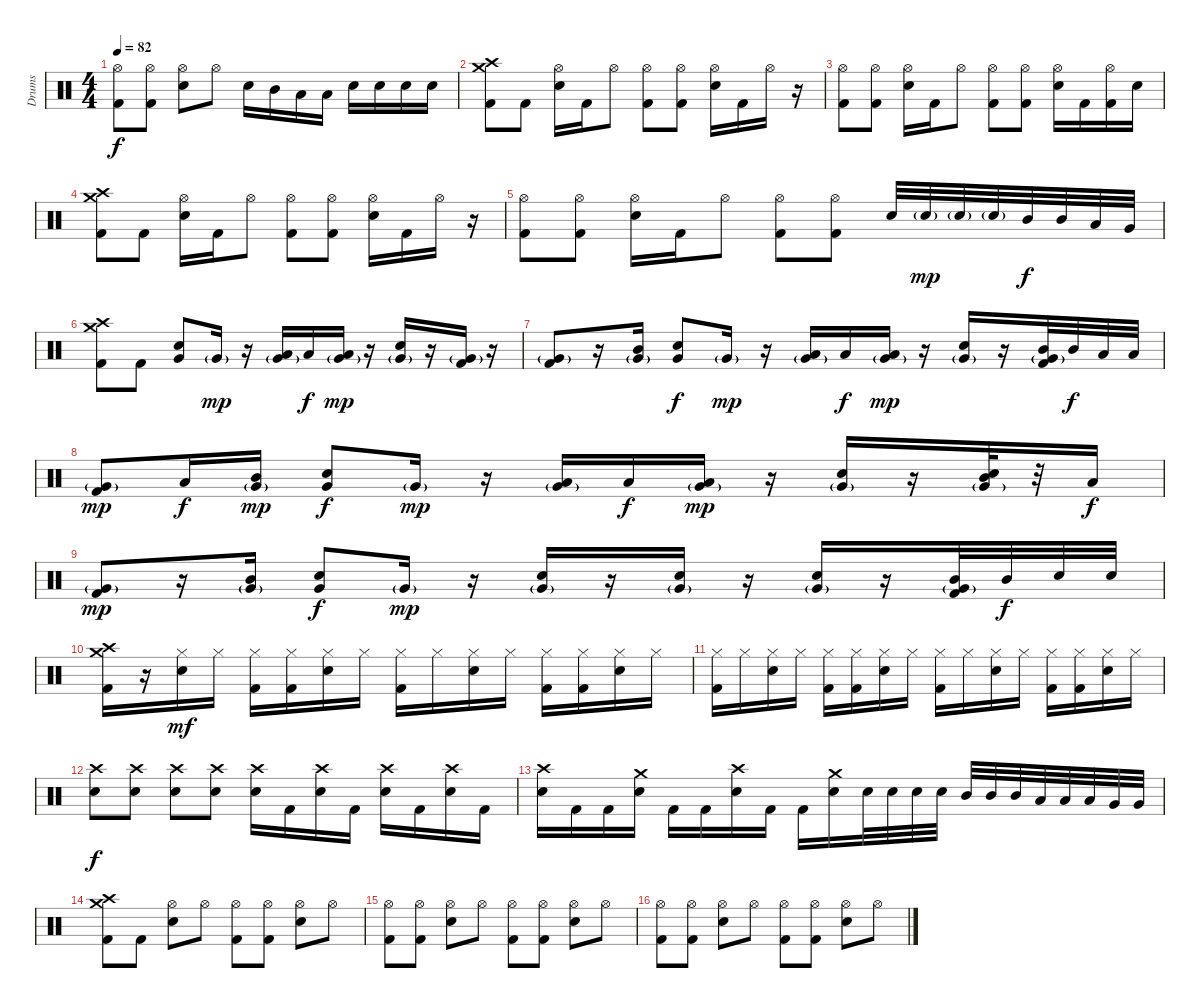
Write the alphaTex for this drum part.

\track ("Drums" "Drums") {instrument percussion}
\staff {score}
\articulation defaults
\ts (4 4)
\tempo 82
\clef neutral
\ks c
("Hi-Hat (open)" "Kick (hit) 2").8{dy f} ("Hi-Hat (open)" "Kick (hit) 2").8 ("Hi-Hat (open)" "Electric Snare (hit)").8 "Hi-Hat (open)".8 "Electric Snare (hit)".16 "Mid Tom (hit)".16 "Low Tom (hit)".16 "Low Tom (hit)".16 "Electric Snare (hit)".16 "Electric Snare (hit)".16 "Electric Snare (hit)".16 "Electric Snare (hit)".16 |
("Crash high (hit)" "Crash medium (hit)" "Kick (hit) 2").8 "Kick (hit) 2".8 ("Hi-Hat (open)" "Electric Snare (hit)").16 "Kick (hit) 2".16 "Hi-Hat (open)".8 ("Hi-Hat (open)" "Kick (hit) 2").8 ("Hi-Hat (open)" "Kick (hit) 2").8 ("Hi-Hat (open)" "Electric Snare (hit)").16 "Kick (hit) 2".16 "Hi-Hat (open)".16 r.16 |
("Hi-Hat (open)" "Kick (hit) 2").8 ("Hi-Hat (open)" "Kick (hit) 2").8 ("Hi-Hat (open)" "Electric Snare (hit)").16 "Kick (hit) 2".16 "Hi-Hat (open)".8 ("Hi-Hat (open)" "Kick (hit) 2").8 ("Hi-Hat (open)" "Kick (hit) 2").8 ("Hi-Hat (open)" "Electric Snare (hit)").16 "Kick (hit) 2".16 ("Hi-Hat (open)" "Kick (hit) 2").16 "Electric Snare (hit)".16 |
("Crash high (hit)" "Crash medium (hit)" "Kick (hit) 2").8 "Kick (hit) 2".8 ("Hi-Hat (open)" "Electric Snare (hit)").16 "Kick (hit) 2".16 "Hi-Hat (open)".8 ("Hi-Hat (open)" "Kick (hit) 2").8 ("Hi-Hat (open)" "Kick (hit) 2").8 ("Hi-Hat (open)" "Electric Snare (hit)").16 "Kick (hit) 2".16 "Hi-Hat (open)".16 r.16 |
("Hi-Hat (open)" "Kick (hit) 2").8 ("Hi-Hat (open)" "Kick (hit) 2").8 ("Hi-Hat (open)" "Electric Snare (hit)").16 "Kick (hit) 2".16 "Hi-Hat (open)".8 ("Hi-Hat (open)" "Kick (hit) 2").8 ("Hi-Hat (open)" "Kick (hit) 2").8 "Electric Snare (hit)".32 "Electric Snare (hit)"{g}.32{dy mp} "Electric Snare (hit)"{g}.32 "Electric Snare (hit)"{g}.32 "Mid Tom (hit)".32{dy f} "Mid Tom (hit)".32 "Low Tom (hit)".32 "Very Low Tom (hit)".32 |
("Crash high (hit)" "Crash medium (hit)" "Kick (hit) 2").8 "Kick (hit) 2".8 ("Very Low Tom (hit)" "Electric Snare (hit)").8 "Very Low Tom (hit)"{g}.16{dy mp} r.16 ("Low Tom (hit)" "Very Low Tom (hit)"{g}).16 "Low Tom (hit)".16{dy f} ("Low Tom (hit)" "Very Low Tom (hit)"{g}).16{dy mp} r.16 ("Very Low Tom (hit)"{g} "Electric Snare (hit)").16 r.16 ("Very Low Tom (hit)"{g} "Kick (hit) 2").16 r.16 |
("Very Low Tom (hit)"{g} "Kick (hit) 2").8 r.16 ("Mid Tom (hit)" "Very Low Tom (hit)"{g}).16 ("Very Low Tom (hit)" "Electric Snare (hit)").8{dy f} "Very Low Tom (hit)"{g}.16{dy mp} r.16 ("Low Tom (hit)" "Very Low Tom (hit)"{g}).16 "Low Tom (hit)".16{dy f} ("Low Tom (hit)" "Very Low Tom (hit)"{g}).16{dy mp} r.16 ("Very Low Tom (hit)"{g} "Electric Snare (hit)").16 r.16 ("Mid Tom (hit)" "Very Low Tom (hit)"{g} "Kick (hit) 2").32 "Mid Tom (hit)".32{dy f} "Low Tom (hit)".32 "Low Tom (hit)".32 |
("Very Low Tom (hit)"{g} "Kick (hit) 2").8{dy mp} "Low Tom (hit)".16{dy f} ("Mid Tom (hit)" "Very Low Tom (hit)"{g}).16{dy mp} ("Very Low Tom (hit)" "Electric Snare (hit)").8{dy f} "Very Low Tom (hit)"{g}.16{dy mp} r.16 ("Low Tom (hit)" "Very Low Tom (hit)"{g}).16 "Low Tom (hit)".16{dy f} ("Low Tom (hit)" "Very Low Tom (hit)"{g}).16{dy mp} r.16 ("Very Low Tom (hit)"{g} "Electric Snare (hit)").16 r.16 ("Mid Tom (hit)" "Very Low Tom (hit)"{g} "Electric Snare (hit)").32 r.32 "Low Tom (hit)".16{dy f} |
("Very Low Tom (hit)"{g} "Kick (hit) 2").8{dy mp} r.16 ("Mid Tom (hit)" "Very Low Tom (hit)"{g}).16 ("Very Low Tom (hit)" "Electric Snare (hit)").8{dy f} "Very Low Tom (hit)"{g}.16{dy mp} r.16 ("Very Low Tom (hit)"{g} "Electric Snare (hit)").16 r.16 ("Very Low Tom (hit)"{g} "Electric Snare (hit)").16 r.16 ("Very Low Tom (hit)"{g} "Electric Snare (hit)").16 r.16 ("Mid Tom (hit)" "Very Low Tom (hit)"{g} "Kick (hit) 2").32 "Mid Tom (hit)".32{dy f} "Electric Snare (hit)".32 "Electric Snare (hit)".32 |
("Crash high (hit)" "Crash medium (hit)" "Kick (hit) 2").16 r.16 ("Hi-Hat (closed)" "Electric Snare (hit)").16{dy mf} "Hi-Hat (closed)".16 ("Hi-Hat (closed)" "Kick (hit) 2").16 ("Hi-Hat (closed)" "Kick (hit) 2").16 ("Hi-Hat (closed)" "Electric Snare (hit)").16 "Hi-Hat (closed)".16 ("Hi-Hat (closed)" "Kick (hit) 2").16 "Hi-Hat (closed)".16 ("Hi-Hat (closed)" "Electric Snare (hit)").16 "Hi-Hat (closed)".16 ("Hi-Hat (closed)" "Kick (hit) 2").16 ("Hi-Hat (closed)" "Kick (hit) 2").16 ("Hi-Hat (closed)" "Electric Snare (hit)").16 "Hi-Hat (closed)".16 |
("Hi-Hat (closed)" "Kick (hit) 2").16 "Hi-Hat (closed)".16 ("Hi-Hat (closed)" "Electric Snare (hit)").16 "Hi-Hat (closed)".16 ("Hi-Hat (closed)" "Kick (hit) 2").16 ("Hi-Hat (closed)" "Kick (hit) 2").16 ("Hi-Hat (closed)" "Electric Snare (hit)").16 "Hi-Hat (closed)".16 ("Hi-Hat (closed)" "Kick (hit) 2").16 "Hi-Hat (closed)".16 ("Hi-Hat (closed)" "Electric Snare (hit)").16 "Hi-Hat (closed)".16 ("Hi-Hat (closed)" "Kick (hit) 2").16 ("Hi-Hat (closed)" "Kick (hit) 2").16 ("Hi-Hat (closed)" "Electric Snare (hit)").16 "Hi-Hat (closed)".16 |
("Crash high (hit)" "Electric Snare (hit)").8{dy f} ("Crash high (hit)" "Electric Snare (hit)").8 ("Crash high (hit)" "Electric Snare (hit)").8 ("Crash high (hit)" "Electric Snare (hit)").8 ("Crash high (hit)" "Electric Snare (hit)").16 "Kick (hit) 2".16 ("Crash high (hit)" "Electric Snare (hit)").16 "Kick (hit) 2".16 ("Crash high (hit)" "Electric Snare (hit)").16 "Kick (hit) 2".16 ("Crash high (hit)" "Electric Snare (hit)").16 "Kick (hit) 2".16 |
("Crash high (hit)" "Electric Snare (hit)").16 "Kick (hit) 2".16 "Kick (hit) 2".16 ("Crash medium (hit)" "Electric Snare (hit)").16 "Kick (hit) 2".16 "Kick (hit) 2".16 ("Crash high (hit)" "Electric Snare (hit)").16 "Kick (hit) 2".16 "Kick (hit) 2".16 ("Crash medium (hit)" "Electric Snare (hit)").16 "Electric Snare (hit)".32 "Electric Snare (hit)".32 "Electric Snare (hit)".32 "Electric Snare (hit)".32 "Mid Tom (hit)".32 "Mid Tom (hit)".32 "Mid Tom (hit)".32 "Low Tom (hit)".32 "Low Tom (hit)".32 "Low Tom (hit)".32 "Very Low Tom (hit)".32 "Very Low Tom (hit)".32 |
("Crash high (hit)" "Crash medium (hit)" "Kick (hit) 2").8 "Kick (hit) 2".8 ("Hi-Hat (open)" "Electric Snare (hit)").8 "Hi-Hat (open)".8 ("Hi-Hat (open)" "Kick (hit) 2").8 ("Hi-Hat (open)" "Kick (hit) 2").8 ("Hi-Hat (open)" "Electric Snare (hit)").8 "Hi-Hat (open)".8 |
("Hi-Hat (open)" "Kick (hit) 2").8 ("Hi-Hat (open)" "Kick (hit) 2").8 ("Hi-Hat (open)" "Electric Snare (hit)").8 "Hi-Hat (open)".8 ("Hi-Hat (open)" "Kick (hit) 2").8 ("Hi-Hat (open)" "Kick (hit) 2").8 ("Hi-Hat (open)" "Electric Snare (hit)").8 "Hi-Hat (open)".8 |
("Hi-Hat (open)" "Kick (hit) 2").8 ("Hi-Hat (open)" "Kick (hit) 2").8 ("Hi-Hat (open)" "Electric Snare (hit)").8 "Hi-Hat (open)".8 ("Hi-Hat (open)" "Kick (hit) 2").8 ("Hi-Hat (open)" "Kick (hit) 2").8 ("Hi-Hat (open)" "Electric Snare (hit)").8 "Hi-Hat (open)".8
